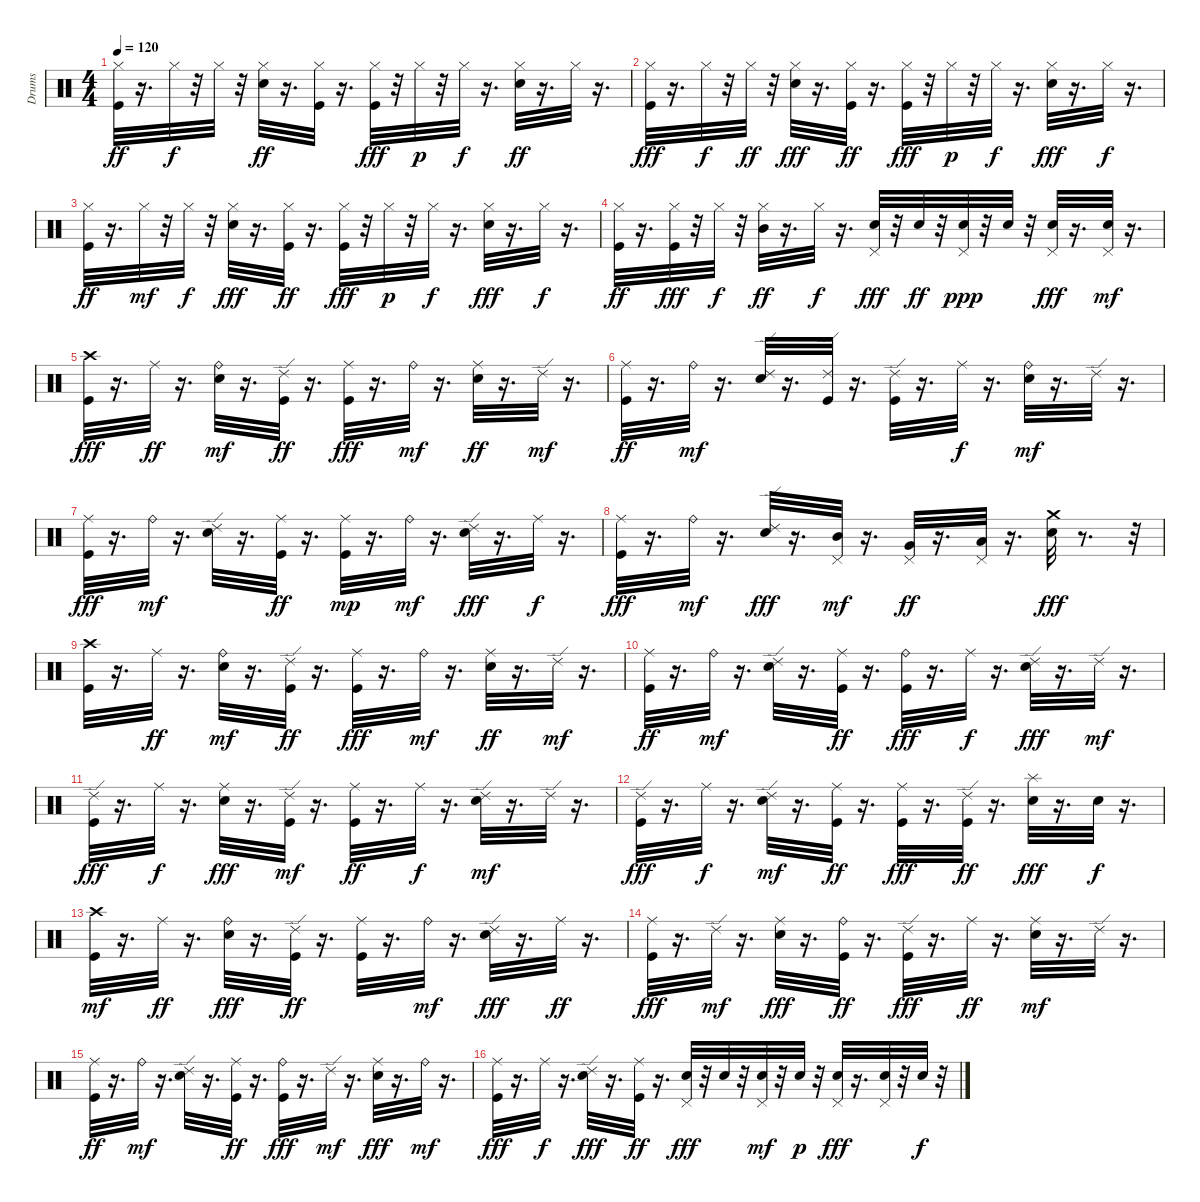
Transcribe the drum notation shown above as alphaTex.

\track ("Drums" "Drums") {instrument percussion}
\staff {score}
\articulation defaults
\ts (4 4)
\tempo 120
\clef neutral
\ks c
("Kick (hit)" "Hi-Hat (closed)").32{dy ff} r.16{d} "Hi-Hat (closed)".32{dy f} r.32 "Hi-Hat (closed)".32 r.32 ("Electric Snare (hit)" "Hi-Hat (closed)").32{dy ff} r.16{d} ("Hi-Hat (closed)" "Kick (hit)").32 r.16{d} ("Hi-Hat (closed)" "Kick (hit)").32{dy fff} r.32 "Hi-Hat (closed)".32{dy p} r.32 "Hi-Hat (closed)".32{dy f} r.16{d} ("Electric Snare (hit)" "Hi-Hat (closed)").32{dy ff} r.16{d} "Hi-Hat (closed)".32 r.16{d} |
("Hi-Hat (closed)" "Kick (hit)").32{dy fff} r.16{d} "Hi-Hat (closed)".32{dy f} r.32 "Hi-Hat (closed)".32{dy ff} r.32 ("Hi-Hat (closed)" "Electric Snare (hit)").32{dy fff} r.16{d} ("Hi-Hat (closed)" "Kick (hit)").32{dy ff} r.16{d} ("Hi-Hat (closed)" "Kick (hit)").32{dy fff} r.32 "Hi-Hat (closed)".32{dy p} r.32 "Hi-Hat (closed)".32{dy f} r.16{d} ("Hi-Hat (closed)" "Electric Snare (hit)").32{dy fff} r.16{d} "Hi-Hat (closed)".32{dy f} r.16{d} |
("Kick (hit)" "Hi-Hat (closed)").32{dy ff} r.16{d} "Hi-Hat (closed)".32{dy mf} r.32 "Hi-Hat (closed)".32{dy f} r.32 ("Hi-Hat (closed)" "Electric Snare (hit)").32{dy fff} r.16{d} ("Kick (hit)" "Hi-Hat (closed)").32{dy ff} r.16{d} ("Kick (hit)" "Hi-Hat (closed)").32{dy fff} r.32 "Hi-Hat (closed)".32{dy p} r.32 "Hi-Hat (closed)".32{dy f} r.16{d} ("Electric Snare (hit)" "Hi-Hat (closed)").32{dy fff} r.16{d} "Hi-Hat (closed)".32{dy f} r.16{d} |
("Kick (hit)" "Hi-Hat (closed)").32{dy ff} r.16{d} ("Hi-Hat (closed)" "Kick (hit)").32{dy fff} r.32 "Hi-Hat (closed)".32{dy f} r.32 ("Hi-Hat (closed)" "Mid Tom (hit)").32{dy ff} r.16{d} "Hi-Hat (closed)".32{dy f} r.16{d} ("Pedal Hi-Hat (hit)" "Electric Snare (hit)").32{dy fff} r.32 "Electric Snare (hit)".32{dy ff} r.32 ("Pedal Hi-Hat (hit)" "Electric Snare (hit)").32{dy ppp} r.32 "Electric Snare (hit)".32 r.32 ("Pedal Hi-Hat (hit)" "Electric Snare (hit)").32{dy fff} r.16{d} ("Electric Snare (hit)" "Pedal Hi-Hat (hit)").32{dy mf} r.16{d} |
("Crash high (hit)" "Kick (hit)").32{dy fff} r.16{d} "Ride (middle)".32{dy ff} r.16{d} ("Electric Snare (hit)" "Ride (bell)").32{dy mf} r.16{d} ("Ride (edge) 2" "Kick (hit)").32{dy ff} r.16{d} ("Ride (middle)" "Kick (hit)").32{dy fff} r.16{d} "Ride (bell)".32{dy mf} r.16{d} ("Electric Snare (hit)" "Ride (middle)").32{dy ff} r.16{d} "Ride (edge) 2".32{dy mf} r.16{d} |
("Kick (hit)" "Ride (middle)").32{dy ff} r.16{d} "Ride (bell)".32{dy mf} r.16{d} ("Electric Snare (hit)" "Ride (edge) 2").32 r.16{d} ("Kick (hit)" "Ride (edge) 2").32 r.16{d} ("Kick (hit)" "Ride (edge) 2").32 r.16{d} "Ride (middle)".32{dy f} r.16{d} ("Electric Snare (hit)" "Ride (bell)").32{dy mf} r.16{d} "Ride (edge) 2".32 r.16{d} |
("Ride (middle)" "Kick (hit)").32{dy fff} r.16{d} "Ride (bell)".32{dy mf} r.16{d} ("Electric Snare (hit)" "Ride (edge) 2").32 r.16{d} ("Ride (middle)" "Kick (hit)").32{dy ff} r.16{d} ("Kick (hit)" "Ride (middle)").32{dy mp} r.16{d} "Ride (bell)".32{dy mf} r.16{d} ("Ride (edge) 2" "Electric Snare (hit)").32{dy fff} r.16{d} "Ride (middle)".32{dy f} r.16{d} |
("Ride (middle)" "Kick (hit)").32{dy fff} r.16{d} "Ride (bell)".32{dy mf} r.16{d} ("Electric Snare (hit)" "Ride (edge) 2").32{dy fff} r.16{d} ("Pedal Hi-Hat (hit)" "Mid Tom (hit)").32{dy mf} r.16{d} ("Very Low Tom (hit)" "Pedal Hi-Hat (hit)").32{dy ff} r.16{d} ("Pedal Hi-Hat (hit)" "Low Floor Tom (hit)").32 r.16{d} ("Crash medium (hit)" "Electric Snare (hit)").32{dy fff} r.8{d} r.32 |
("Crash high (hit)" "Kick (hit)").32 r.16{d} "Ride (middle)".32{dy ff} r.16{d} ("Electric Snare (hit)" "Ride (bell)").32{dy mf} r.16{d} ("Ride (edge) 2" "Kick (hit)").32{dy ff} r.16{d} ("Ride (middle)" "Kick (hit)").32{dy fff} r.16{d} "Ride (bell)".32{dy mf} r.16{d} ("Electric Snare (hit)" "Ride (middle)").32{dy ff} r.16{d} "Ride (edge) 2".32{dy mf} r.16{d} |
("Kick (hit)" "Ride (middle)").32{dy ff} r.16{d} "Ride (bell)".32{dy mf} r.16{d} ("Electric Snare (hit)" "Ride (edge) 2").32 r.16{d} ("Kick (hit)" "Ride (middle)").32{dy ff} r.16{d} ("Ride (bell)" "Kick (hit)").32{dy fff} r.16{d} "Ride (middle)".32{dy f} r.16{d} ("Ride (edge) 2" "Electric Snare (hit)").32{dy fff} r.16{d} "Ride (edge) 2".32{dy mf} r.16{d} |
("Ride (edge) 2" "Kick (hit)").32{dy fff} r.16{d} "Ride (middle)".32{dy f} r.16{d} ("Ride (middle)" "Electric Snare (hit)").32{dy fff} r.16{d} ("Kick (hit)" "Ride (edge) 2").32{dy mf} r.16{d} ("Kick (hit)" "Ride (middle)").32{dy ff} r.16{d} "Ride (middle)".32{dy f} r.16{d} ("Electric Snare (hit)" "Ride (edge) 2").32{dy mf} r.16{d} "Ride (edge) 2".32 r.16{d} |
("Ride (edge) 2" "Kick (hit)").32{dy fff} r.16{d} "Ride (middle)".32{dy f} r.16{d} ("Electric Snare (hit)" "Ride (edge) 2").32{dy mf} r.16{d} ("Kick (hit)" "Ride (middle)").32{dy ff} r.16{d} ("Kick (hit)" "Ride (middle)").32{dy fff} r.16{d} ("Ride (edge) 2" "Kick (hit)").32{dy ff} r.16{d} ("Splash (hit)" "Electric Snare (hit)").32{dy fff} r.16{d} "Electric Snare (hit)".32{dy f} r.16{d} |
("Kick (hit)" "Crash high (hit)").32{dy mf} r.16{d} "Ride (middle)".32{dy ff} r.16{d} ("Ride (bell)" "Electric Snare (hit)").32{dy fff} r.16{d} ("Ride (edge) 2" "Kick (hit)").32{dy ff} r.16{d} ("Kick (hit)" "Ride (middle)").32 r.16{d} "Ride (bell)".32{dy mf} r.16{d} ("Ride (edge) 2" "Electric Snare (hit)").32{dy fff} r.16{d} "Ride (middle)".32{dy ff} r.16{d} |
("Ride (middle)" "Kick (hit)").32{dy fff} r.16{d} "Ride (edge) 2".32{dy mf} r.16{d} ("Ride (middle)" "Electric Snare (hit)").32{dy fff} r.16{d} ("Ride (bell)" "Kick (hit)").32{dy ff} r.16{d} ("Ride (edge) 2" "Kick (hit)").32{dy fff} r.16{d} "Ride (middle)".32{dy ff} r.16{d} ("Electric Snare (hit)" "Ride (middle)").32{dy mf} r.16{d} "Ride (edge) 2".32 r.16{d} |
("Kick (hit)" "Ride (middle)").32{dy ff} r.16{d} "Ride (bell)".32{dy mf} r.16{d} ("Electric Snare (hit)" "Ride (edge) 2").32 r.16{d} ("Ride (middle)" "Kick (hit)").32{dy ff} r.16{d} ("Ride (bell)" "Kick (hit)").32{dy fff} r.16{d} "Ride (edge) 2".32{dy mf} r.16{d} ("Ride (middle)" "Electric Snare (hit)").32{dy fff} r.16{d} "Ride (bell)".32{dy mf} r.16{d} |
("Ride (middle)" "Kick (hit)").32{dy fff} r.16{d} "Ride (middle)".32{dy f} r.16{d} ("Ride (edge) 2" "Electric Snare (hit)").32{dy fff} r.16{d} ("Ride (middle)" "Kick (hit)").32{dy ff} r.16{d} ("Pedal Hi-Hat (hit)" "Electric Snare (hit)").32{dy fff} r.32 "Electric Snare (hit)".32 r.32 ("Electric Snare (hit)" "Pedal Hi-Hat (hit)").32{dy mf} r.32 "Electric Snare (hit)".32{dy p} r.32 ("Pedal Hi-Hat (hit)" "Electric Snare (hit)").32{dy fff} r.16{d} ("Pedal Hi-Hat (hit)" "Electric Snare (hit)").32 r.32 "Electric Snare (hit)".32{dy f} r.32
